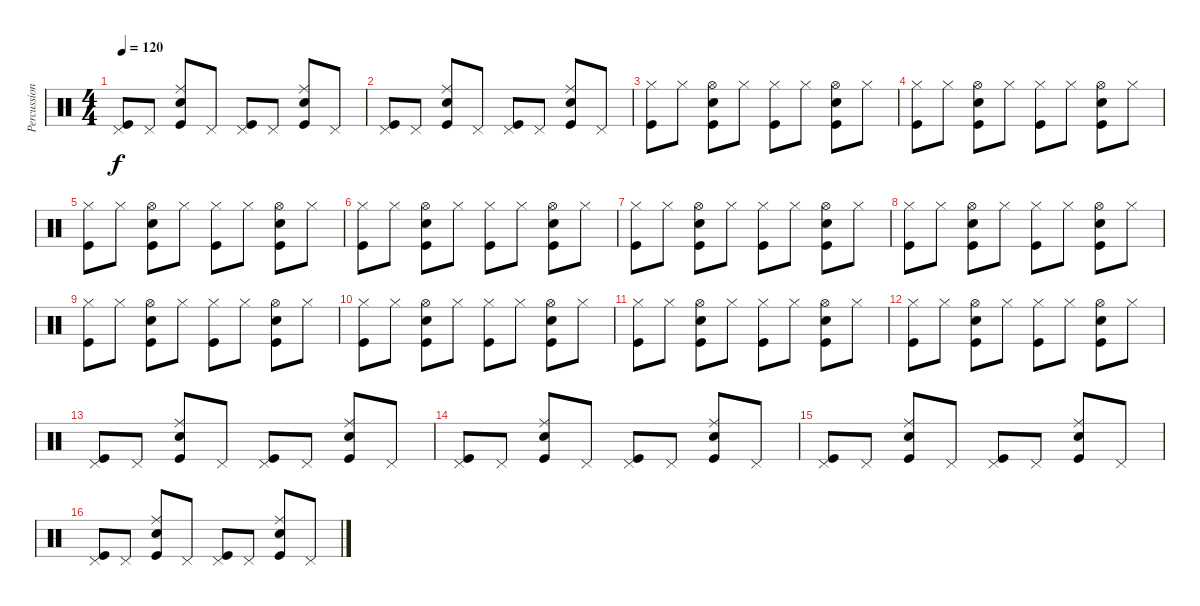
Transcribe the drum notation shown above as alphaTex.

\track ("Percussions" "Percussion") {instrument percussion}
\staff {score}
\articulation defaults
\ts (4 4)
\tempo 120
\clef neutral
\ks c
("Pedal Hi-Hat (hit)" "Kick (hit)").8{dy f} "Pedal Hi-Hat (hit)".8 ("Snare (hit) 2" "Ride (middle)" "Kick (hit)").8 "Pedal Hi-Hat (hit)".8 ("Pedal Hi-Hat (hit)" "Kick (hit)").8 "Pedal Hi-Hat (hit)".8 ("Snare (hit) 2" "Ride (middle)" "Kick (hit)").8 "Pedal Hi-Hat (hit)".8 |
("Pedal Hi-Hat (hit)" "Kick (hit)").8 "Pedal Hi-Hat (hit)".8 ("Snare (hit) 2" "Ride (middle)" "Kick (hit)").8 "Pedal Hi-Hat (hit)".8 ("Pedal Hi-Hat (hit)" "Kick (hit)").8 "Pedal Hi-Hat (hit)".8 ("Snare (hit) 2" "Ride (middle)" "Kick (hit)").8 "Pedal Hi-Hat (hit)".8 |
("Hi-Hat (closed)" "Kick (hit)").8 "Hi-Hat (closed)".8 ("Snare (hit) 2" "Hi-Hat (open)" "Kick (hit)").8 "Hi-Hat (closed)".8 ("Hi-Hat (closed)" "Kick (hit)").8 "Hi-Hat (closed)".8 ("Snare (hit) 2" "Hi-Hat (open)" "Kick (hit)").8 "Hi-Hat (closed)".8 |
("Hi-Hat (closed)" "Kick (hit)").8 "Hi-Hat (closed)".8 ("Snare (hit) 2" "Hi-Hat (open)" "Kick (hit)").8 "Hi-Hat (closed)".8 ("Hi-Hat (closed)" "Kick (hit)").8 "Hi-Hat (closed)".8 ("Snare (hit) 2" "Hi-Hat (open)" "Kick (hit)").8 "Hi-Hat (closed)".8 |
("Hi-Hat (closed)" "Kick (hit)").8 "Hi-Hat (closed)".8 ("Snare (hit) 2" "Hi-Hat (open)" "Kick (hit)").8 "Hi-Hat (closed)".8 ("Hi-Hat (closed)" "Kick (hit)").8 "Hi-Hat (closed)".8 ("Snare (hit) 2" "Hi-Hat (open)" "Kick (hit)").8 "Hi-Hat (closed)".8 |
("Hi-Hat (closed)" "Kick (hit)").8 "Hi-Hat (closed)".8 ("Snare (hit) 2" "Hi-Hat (open)" "Kick (hit)").8 "Hi-Hat (closed)".8 ("Hi-Hat (closed)" "Kick (hit)").8 "Hi-Hat (closed)".8 ("Snare (hit) 2" "Hi-Hat (open)" "Kick (hit)").8 "Hi-Hat (closed)".8 |
("Hi-Hat (closed)" "Kick (hit)").8 "Hi-Hat (closed)".8 ("Snare (hit) 2" "Hi-Hat (open)" "Kick (hit)").8 "Hi-Hat (closed)".8 ("Hi-Hat (closed)" "Kick (hit)").8 "Hi-Hat (closed)".8 ("Snare (hit) 2" "Hi-Hat (open)" "Kick (hit)").8 "Hi-Hat (closed)".8 |
("Hi-Hat (closed)" "Kick (hit)").8 "Hi-Hat (closed)".8 ("Snare (hit) 2" "Hi-Hat (open)" "Kick (hit)").8 "Hi-Hat (closed)".8 ("Hi-Hat (closed)" "Kick (hit)").8 "Hi-Hat (closed)".8 ("Snare (hit) 2" "Hi-Hat (open)" "Kick (hit)").8 "Hi-Hat (closed)".8 |
("Hi-Hat (closed)" "Kick (hit)").8 "Hi-Hat (closed)".8 ("Snare (hit) 2" "Hi-Hat (open)" "Kick (hit)").8 "Hi-Hat (closed)".8 ("Hi-Hat (closed)" "Kick (hit)").8 "Hi-Hat (closed)".8 ("Snare (hit) 2" "Hi-Hat (open)" "Kick (hit)").8 "Hi-Hat (closed)".8 |
("Hi-Hat (closed)" "Kick (hit)").8 "Hi-Hat (closed)".8 ("Snare (hit) 2" "Hi-Hat (open)" "Kick (hit)").8 "Hi-Hat (closed)".8 ("Hi-Hat (closed)" "Kick (hit)").8 "Hi-Hat (closed)".8 ("Snare (hit) 2" "Hi-Hat (open)" "Kick (hit)").8 "Hi-Hat (closed)".8 |
("Hi-Hat (closed)" "Kick (hit)").8 "Hi-Hat (closed)".8 ("Snare (hit) 2" "Hi-Hat (open)" "Kick (hit)").8 "Hi-Hat (closed)".8 ("Hi-Hat (closed)" "Kick (hit)").8 "Hi-Hat (closed)".8 ("Snare (hit) 2" "Hi-Hat (open)" "Kick (hit)").8 "Hi-Hat (closed)".8 |
("Hi-Hat (closed)" "Kick (hit)").8 "Hi-Hat (closed)".8 ("Snare (hit) 2" "Hi-Hat (open)" "Kick (hit)").8 "Hi-Hat (closed)".8 ("Hi-Hat (closed)" "Kick (hit)").8 "Hi-Hat (closed)".8 ("Snare (hit) 2" "Hi-Hat (open)" "Kick (hit)").8 "Hi-Hat (closed)".8 |
("Pedal Hi-Hat (hit)" "Kick (hit)").8{volume 7} "Pedal Hi-Hat (hit)".8 ("Snare (hit) 2" "Ride (middle)" "Kick (hit)").8 "Pedal Hi-Hat (hit)".8 ("Pedal Hi-Hat (hit)" "Kick (hit)").8 "Pedal Hi-Hat (hit)".8 ("Snare (hit) 2" "Ride (middle)" "Kick (hit)").8 "Pedal Hi-Hat (hit)".8 |
("Pedal Hi-Hat (hit)" "Kick (hit)").8 "Pedal Hi-Hat (hit)".8 ("Snare (hit) 2" "Ride (middle)" "Kick (hit)").8 "Pedal Hi-Hat (hit)".8 ("Pedal Hi-Hat (hit)" "Kick (hit)").8 "Pedal Hi-Hat (hit)".8 ("Snare (hit) 2" "Ride (middle)" "Kick (hit)").8 "Pedal Hi-Hat (hit)".8 |
("Pedal Hi-Hat (hit)" "Kick (hit)").8{volume 12} "Pedal Hi-Hat (hit)".8 ("Snare (hit) 2" "Ride (middle)" "Kick (hit)").8 "Pedal Hi-Hat (hit)".8 ("Pedal Hi-Hat (hit)" "Kick (hit)").8 "Pedal Hi-Hat (hit)".8 ("Snare (hit) 2" "Ride (middle)" "Kick (hit)").8 "Pedal Hi-Hat (hit)".8 |
("Pedal Hi-Hat (hit)" "Kick (hit)").8 "Pedal Hi-Hat (hit)".8 ("Snare (hit) 2" "Ride (middle)" "Kick (hit)").8 "Pedal Hi-Hat (hit)".8 ("Pedal Hi-Hat (hit)" "Kick (hit)").8 "Pedal Hi-Hat (hit)".8 ("Snare (hit) 2" "Ride (middle)" "Kick (hit)").8 "Pedal Hi-Hat (hit)".8
